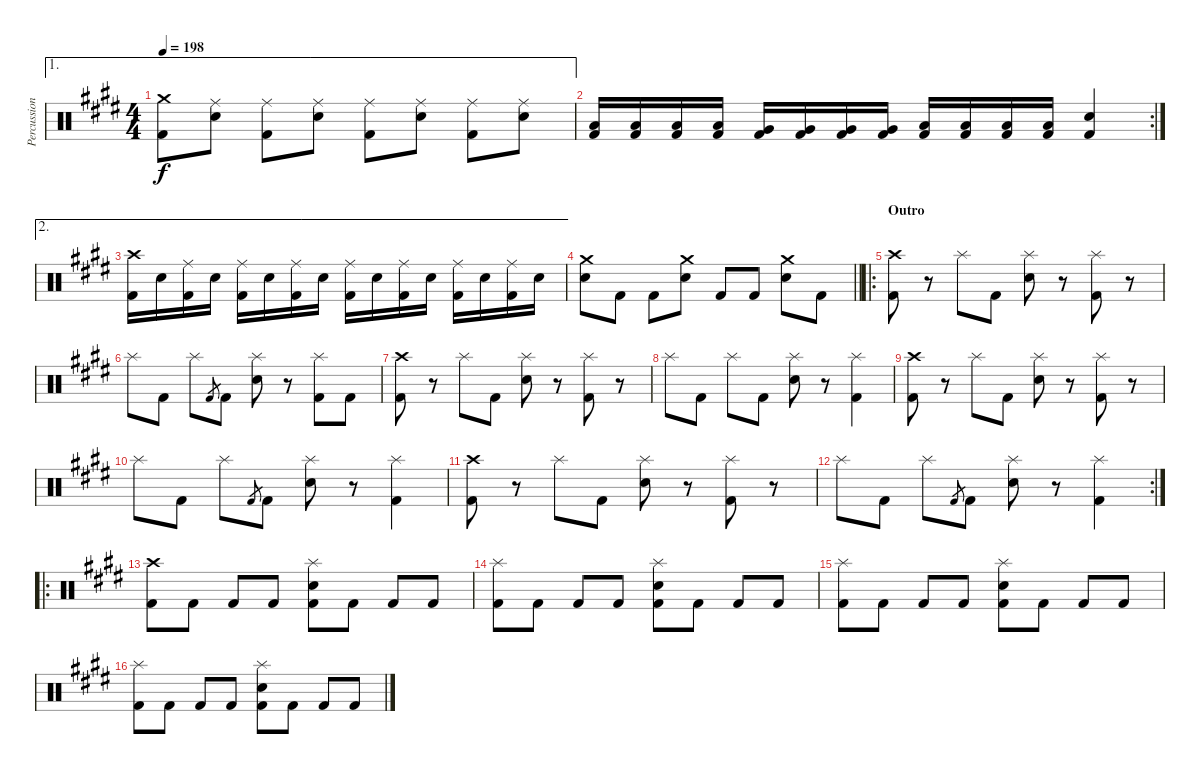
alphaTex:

\track ("Percussion" "Percussion") {instrument percussion}
\staff {score}
\articulation defaults
\ae 1
\ts (4 4)
\tempo 198
\clef neutral
\ks e
("Crash medium (hit)" "Kick (hit) 2").8{dy f} ("Ride (middle)" "Snare (hit) 2").8 ("Ride (middle)" "Kick (hit) 2").8 ("Ride (middle)" "Snare (hit) 2").8 ("Ride (middle)" "Kick (hit) 2").8 ("Ride (middle)" "Snare (hit) 2").8 ("Ride (middle)" "Kick (hit) 2").8 ("Ride (middle)" "Snare (hit) 2").8 |
\rc 2
("Low Tom (hit)" "Kick (hit) 2").16 ("Low Tom (hit)" "Kick (hit) 2").16 ("Low Tom (hit)" "Kick (hit) 2").16 ("Low Tom (hit)" "Kick (hit) 2").16 ("Very Low Tom (hit)" "Kick (hit) 2").16 ("Very Low Tom (hit)" "Kick (hit) 2").16 ("Very Low Tom (hit)" "Kick (hit) 2").16 ("Very Low Tom (hit)" "Kick (hit) 2").16 ("Low Floor Tom (hit)" "Kick (hit) 2").16 ("Low Floor Tom (hit)" "Kick (hit) 2").16 ("Low Floor Tom (hit)" "Kick (hit) 2").16 ("Low Floor Tom (hit)" "Kick (hit) 2").16 ("Snare (hit) 2" "Kick (hit) 2").4 |
\ae 2
("Crash high (hit)" "Kick (hit) 2").16 "Snare (hit) 2".16 ("Ride (middle)" "Kick (hit) 2").16 "Snare (hit) 2".16 ("Ride (middle)" "Kick (hit) 2").16 "Snare (hit) 2".16 ("Ride (middle)" "Kick (hit) 2").16 "Snare (hit) 2".16 ("Ride (middle)" "Kick (hit) 2").16 "Snare (hit) 2".16 ("Ride (middle)" "Kick (hit) 2").16 "Snare (hit) 2".16 ("Ride (middle)" "Kick (hit) 2").16 "Snare (hit) 2".16 ("Ride (middle)" "Kick (hit) 2").16 "Snare (hit) 2".16 |
\barLineRight lightlight
("Crash medium (hit)" "Snare (hit) 2").8 "Kick (hit) 2".8 "Kick (hit) 2".8 ("Crash medium (hit)" "Snare (hit) 2").8 "Kick (hit) 2".8 "Kick (hit) 2".8 ("Crash medium (hit)" "Snare (hit) 2").8 "Kick (hit) 2".8 |
\ro
\section ("" "Outro")
("Crash high (hit)" "Kick (hit) 2").8 r.8 "Splash (hit)".8 "Kick (hit) 2".8 ("Splash (hit)" "Snare (hit) 2").8 r.8 ("Splash (hit)" "Kick (hit) 2").8 r.8 |
"Splash (hit)".8 "Kick (hit) 2".8 "Splash (hit)".8 "Kick (hit) 2".8{gr} "Kick (hit) 2".8 ("Splash (hit)" "Snare (hit) 2").8 r.8 ("Splash (hit)" "Kick (hit) 2").8 "Kick (hit) 2".8 |
("Crash high (hit)" "Kick (hit) 2").8 r.8 "Splash (hit)".8 "Kick (hit) 2".8 ("Splash (hit)" "Snare (hit) 2").8 r.8 ("Splash (hit)" "Kick (hit) 2").8 r.8 |
"Splash (hit)".8 "Kick (hit) 2".8 "Splash (hit)".8 "Kick (hit) 2".8 ("Splash (hit)" "Snare (hit) 2").8 r.8 ("Splash (hit)" "Kick (hit) 2").4 |
("Crash high (hit)" "Kick (hit) 2").8 r.8 "Splash (hit)".8 "Kick (hit) 2".8 ("Splash (hit)" "Snare (hit) 2").8 r.8 ("Splash (hit)" "Kick (hit) 2").8 r.8 |
"Splash (hit)".8 "Kick (hit) 2".8 "Splash (hit)".8 "Kick (hit) 2".8{gr} "Kick (hit) 2".8 ("Splash (hit)" "Snare (hit) 2").8 r.8 ("Splash (hit)" "Kick (hit) 2").4 |
("Crash high (hit)" "Kick (hit) 2").8 r.8 "Splash (hit)".8 "Kick (hit) 2".8 ("Splash (hit)" "Snare (hit) 2").8 r.8 ("Splash (hit)" "Kick (hit) 2").8 r.8 |
\rc 2 "Splash (hit)".8 "Kick (hit) 2".8 "Splash (hit)".8 "Kick (hit) 2".8{gr} "Kick (hit) 2".8
("Splash (hit)" "Snare (hit) 2").8 r.8 ("Splash (hit)" "Kick (hit) 2").4 |
\ro
("Crash high (hit)" "Kick (hit) 2").8 "Kick (hit) 2".8 "Kick (hit) 2".8 "Kick (hit) 2".8 ("Splash (hit)" "Snare (hit) 2" "Kick (hit) 2").8 "Kick (hit) 2".8 "Kick (hit) 2".8 "Kick (hit) 2".8 |
("Splash (hit)" "Kick (hit) 2").8 "Kick (hit) 2".8 "Kick (hit) 2".8 "Kick (hit) 2".8 ("Splash (hit)" "Snare (hit) 2" "Kick (hit) 2").8 "Kick (hit) 2".8 "Kick (hit) 2".8 "Kick (hit) 2".8 |
("Splash (hit)" "Kick (hit) 2").8 "Kick (hit) 2".8 "Kick (hit) 2".8 "Kick (hit) 2".8 ("Splash (hit)" "Snare (hit) 2" "Kick (hit) 2").8 "Kick (hit) 2".8 "Kick (hit) 2".8 "Kick (hit) 2".8 |
("Splash (hit)" "Kick (hit) 2").8 "Kick (hit) 2".8 "Kick (hit) 2".8 "Kick (hit) 2".8 ("Splash (hit)" "Snare (hit) 2" "Kick (hit) 2").8 "Kick (hit) 2".8 "Kick (hit) 2".8 "Kick (hit) 2".8
